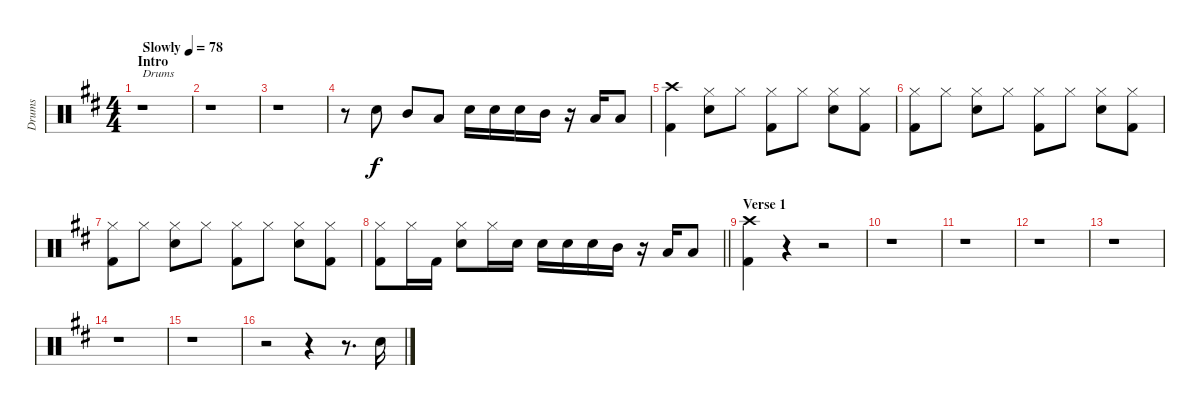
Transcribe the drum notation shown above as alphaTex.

\track ("Drums" "Drums") {instrument percussion}
\staff {score}
\articulation defaults
\ts (4 4)
\section ("" "Intro")
\tempo (78 "Slowly")
\clef neutral
\ks d
r.1{txt "Drums" dy f} |
r.1 |
r.1 |
r.8 "Electric Snare (hit)".8 "Mid Tom (hit)".8 "Low Tom (hit)".8 "Electric Snare (hit)".16 "Electric Snare (hit)".16 "Electric Snare (hit)".16 "Mid Tom (hit)".16 r.16 "Low Tom (hit)".16 "Low Tom (hit)".8 |
("Crash high (hit)" "Kick (hit) 2").4 ("Hi-Hat (closed)" "Electric Snare (hit)").8 "Hi-Hat (closed)".8 ("Hi-Hat (closed)" "Kick (hit) 2").8 "Hi-Hat (closed)".8 ("Hi-Hat (closed)" "Electric Snare (hit)").8 ("Hi-Hat (closed)" "Kick (hit) 2").8 |
("Hi-Hat (closed)" "Kick (hit) 2").8 "Hi-Hat (closed)".8 ("Hi-Hat (closed)" "Electric Snare (hit)").8 "Hi-Hat (closed)".8 ("Hi-Hat (closed)" "Kick (hit) 2").8 "Hi-Hat (closed)".8 ("Hi-Hat (closed)" "Electric Snare (hit)").8 ("Hi-Hat (closed)" "Kick (hit) 2").8 |
("Hi-Hat (closed)" "Kick (hit) 2").8 "Hi-Hat (closed)".8 ("Hi-Hat (closed)" "Electric Snare (hit)").8 "Hi-Hat (closed)".8 ("Hi-Hat (closed)" "Kick (hit) 2").8 "Hi-Hat (closed)".8 ("Hi-Hat (closed)" "Electric Snare (hit)").8 ("Hi-Hat (closed)" "Kick (hit) 2").8 |
\barLineRight lightlight
("Hi-Hat (closed)" "Kick (hit) 2").8 "Hi-Hat (closed)".16 "Kick (hit) 2".16 ("Hi-Hat (closed)" "Electric Snare (hit)").8 "Hi-Hat (closed)".16 "Electric Snare (hit)".16 "Electric Snare (hit)".16 "Electric Snare (hit)".16 "Electric Snare (hit)".16 "Mid Tom (hit)".16 r.16 "Low Tom (hit)".16 "Low Tom (hit)".8 |
\section ("" "Verse 1")
("Crash high (hit)" "Kick (hit) 2").4 r.4 r.2 |
r.1 |
r.1 |
r.1 |
r.1 |
r.1 |
r.1 |
r.2 r.4 r.8{d} "Electric Snare (hit)".16
